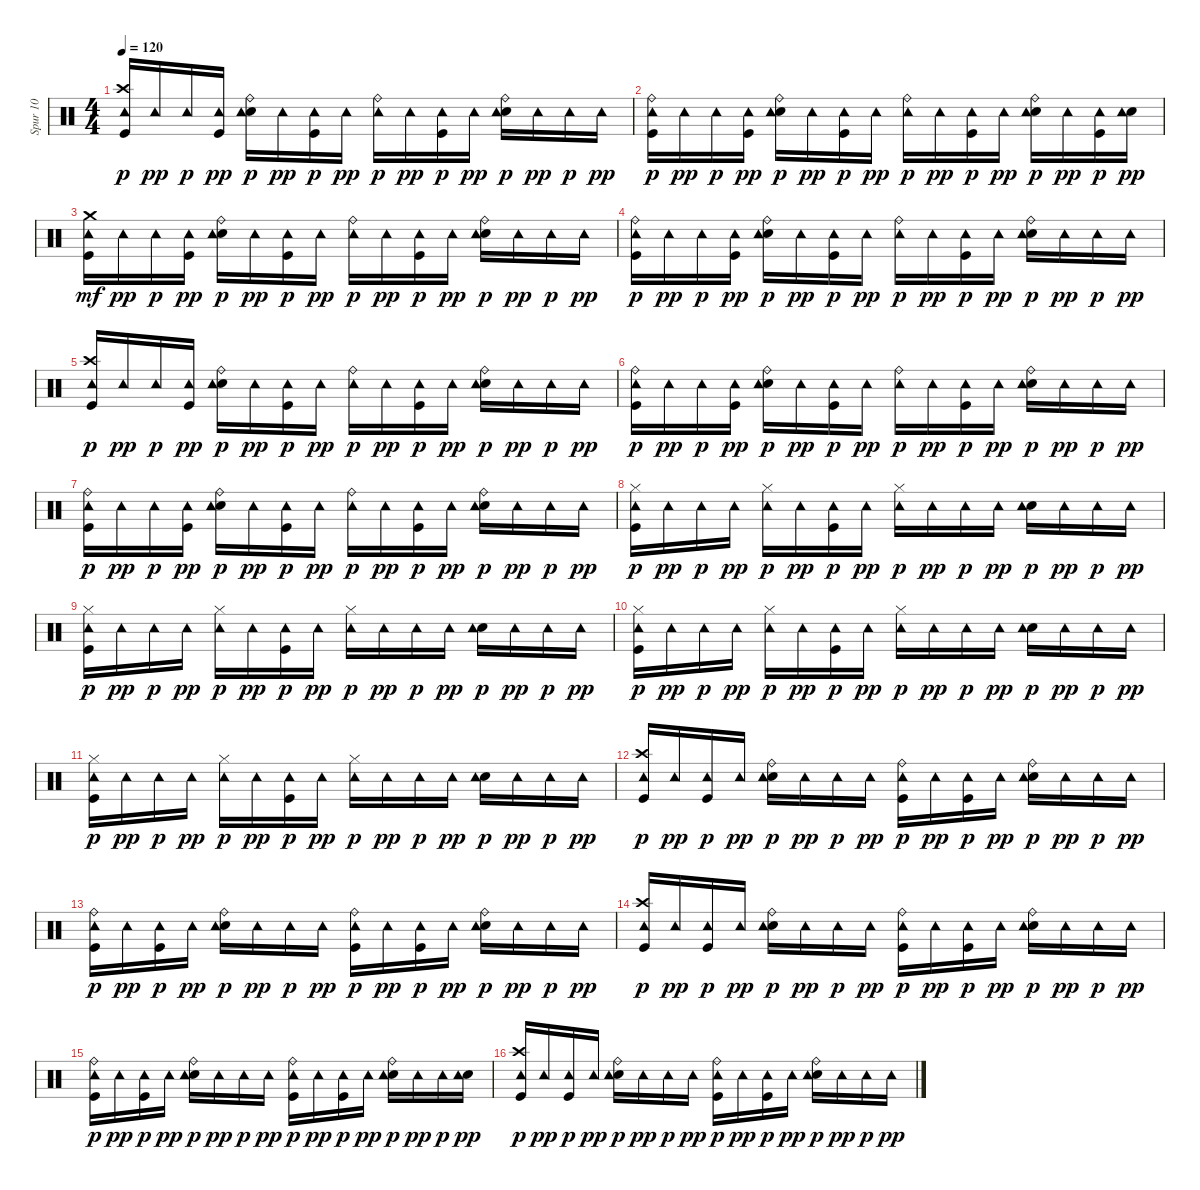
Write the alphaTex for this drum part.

\track ("Spur 10" "Spur 10") {instrument percussion}
\staff {score}
\articulation defaults
\ts (4 4)
\tempo 120
\clef neutral
\ks c
("Kick (hit)" "Crash high (hit)" "Tambourine (hit)").16{dy p} "Tambourine (hit)".16{dy pp} "Tambourine (hit)".16{dy p} ("Kick (hit)" "Tambourine (hit)").16{dy pp} ("Electric Snare (hit)" "Ride (bell)" "Tambourine (hit)").16{dy p} "Tambourine (hit)".16{dy pp} ("Kick (hit)" "Tambourine (hit)").16{dy p} "Tambourine (hit)".16{dy pp} ("Ride (bell)" "Tambourine (hit)").16{dy p} "Tambourine (hit)".16{dy pp} ("Kick (hit)" "Tambourine (hit)").16{dy p} "Tambourine (hit)".16{dy pp} ("Electric Snare (hit)" "Ride (bell)" "Tambourine (hit)").16{dy p} "Tambourine (hit)".16{dy pp} "Tambourine (hit)".16{dy p} "Tambourine (hit)".16{dy pp} |
("Kick (hit)" "Ride (bell)" "Tambourine (hit)").16{dy p} "Tambourine (hit)".16{dy pp} "Tambourine (hit)".16{dy p} ("Kick (hit)" "Tambourine (hit)").16{dy pp} ("Electric Snare (hit)" "Ride (bell)" "Tambourine (hit)").16{dy p} "Tambourine (hit)".16{dy pp} ("Kick (hit)" "Tambourine (hit)").16{dy p} "Tambourine (hit)".16{dy pp} ("Ride (bell)" "Tambourine (hit)").16{dy p} "Tambourine (hit)".16{dy pp} ("Kick (hit)" "Tambourine (hit)").16{dy p} "Tambourine (hit)".16{dy pp} ("Electric Snare (hit)" "Ride (bell)" "Tambourine (hit)").16{dy p} "Tambourine (hit)".16{dy pp} ("Kick (hit)" "Tambourine (hit)").16{dy p} ("Electric Snare (hit)" "Tambourine (hit)").16{dy pp} |
("Kick (hit)" "Tambourine (hit)" "Crash medium (hit)").16{dy mf} "Tambourine (hit)".16{dy pp} "Tambourine (hit)".16{dy p} ("Kick (hit)" "Tambourine (hit)").16{dy pp} ("Electric Snare (hit)" "Ride (bell)" "Tambourine (hit)").16{dy p} "Tambourine (hit)".16{dy pp} ("Kick (hit)" "Tambourine (hit)").16{dy p} "Tambourine (hit)".16{dy pp} ("Ride (bell)" "Tambourine (hit)").16{dy p} "Tambourine (hit)".16{dy pp} ("Kick (hit)" "Tambourine (hit)").16{dy p} "Tambourine (hit)".16{dy pp} ("Electric Snare (hit)" "Ride (bell)" "Tambourine (hit)").16{dy p} "Tambourine (hit)".16{dy pp} "Tambourine (hit)".16{dy p} "Tambourine (hit)".16{dy pp} |
("Kick (hit)" "Ride (bell)" "Tambourine (hit)").16{dy p} "Tambourine (hit)".16{dy pp} "Tambourine (hit)".16{dy p} ("Kick (hit)" "Tambourine (hit)").16{dy pp} ("Electric Snare (hit)" "Ride (bell)" "Tambourine (hit)").16{dy p} "Tambourine (hit)".16{dy pp} ("Kick (hit)" "Tambourine (hit)").16{dy p} "Tambourine (hit)".16{dy pp} ("Ride (bell)" "Tambourine (hit)").16{dy p} "Tambourine (hit)".16{dy pp} ("Kick (hit)" "Tambourine (hit)").16{dy p} "Tambourine (hit)".16{dy pp} ("Electric Snare (hit)" "Ride (bell)" "Tambourine (hit)").16{dy p} "Tambourine (hit)".16{dy pp} "Tambourine (hit)".16{dy p} "Tambourine (hit)".16{dy pp} |
("Kick (hit)" "Crash high (hit)" "Tambourine (hit)").16{dy p} "Tambourine (hit)".16{dy pp} "Tambourine (hit)".16{dy p} ("Kick (hit)" "Tambourine (hit)").16{dy pp} ("Electric Snare (hit)" "Ride (bell)" "Tambourine (hit)").16{dy p} "Tambourine (hit)".16{dy pp} ("Kick (hit)" "Tambourine (hit)").16{dy p} "Tambourine (hit)".16{dy pp} ("Ride (bell)" "Tambourine (hit)").16{dy p} "Tambourine (hit)".16{dy pp} ("Kick (hit)" "Tambourine (hit)").16{dy p} "Tambourine (hit)".16{dy pp} ("Electric Snare (hit)" "Ride (bell)" "Tambourine (hit)").16{dy p} "Tambourine (hit)".16{dy pp} "Tambourine (hit)".16{dy p} "Tambourine (hit)".16{dy pp} |
("Kick (hit)" "Ride (bell)" "Tambourine (hit)").16{dy p} "Tambourine (hit)".16{dy pp} "Tambourine (hit)".16{dy p} ("Kick (hit)" "Tambourine (hit)").16{dy pp} ("Electric Snare (hit)" "Ride (bell)" "Tambourine (hit)").16{dy p} "Tambourine (hit)".16{dy pp} ("Kick (hit)" "Tambourine (hit)").16{dy p} "Tambourine (hit)".16{dy pp} ("Ride (bell)" "Tambourine (hit)").16{dy p} "Tambourine (hit)".16{dy pp} ("Kick (hit)" "Tambourine (hit)").16{dy p} "Tambourine (hit)".16{dy pp} ("Electric Snare (hit)" "Ride (bell)" "Tambourine (hit)").16{dy p} "Tambourine (hit)".16{dy pp} "Tambourine (hit)".16{dy p} "Tambourine (hit)".16{dy pp} |
("Kick (hit)" "Ride (bell)" "Tambourine (hit)").16{dy p} "Tambourine (hit)".16{dy pp} "Tambourine (hit)".16{dy p} ("Kick (hit)" "Tambourine (hit)").16{dy pp} ("Electric Snare (hit)" "Ride (bell)" "Tambourine (hit)").16{dy p} "Tambourine (hit)".16{dy pp} ("Kick (hit)" "Tambourine (hit)").16{dy p} "Tambourine (hit)".16{dy pp} ("Ride (bell)" "Tambourine (hit)").16{dy p} "Tambourine (hit)".16{dy pp} ("Kick (hit)" "Tambourine (hit)").16{dy p} "Tambourine (hit)".16{dy pp} ("Electric Snare (hit)" "Ride (bell)" "Tambourine (hit)").16{dy p} "Tambourine (hit)".16{dy pp} "Tambourine (hit)".16{dy p} "Tambourine (hit)".16{dy pp} |
("Kick (hit)" "Hi-Hat (closed)" "Tambourine (hit)").16{dy p} "Tambourine (hit)".16{dy pp} "Tambourine (hit)".16{dy p} "Tambourine (hit)".16{dy pp} ("Hi-Hat (closed)" "Tambourine (hit)").16{dy p} "Tambourine (hit)".16{dy pp} ("Kick (hit)" "Tambourine (hit)").16{dy p} "Tambourine (hit)".16{dy pp} ("Hi-Hat (closed)" "Tambourine (hit)").16{dy p} "Tambourine (hit)".16{dy pp} "Tambourine (hit)".16{dy p} "Tambourine (hit)".16{dy pp} ("Electric Snare (hit)" "Tambourine (hit)").16{dy p} "Tambourine (hit)".16{dy pp} "Tambourine (hit)".16{dy p} "Tambourine (hit)".16{dy pp} |
("Kick (hit)" "Hi-Hat (closed)" "Tambourine (hit)").16{dy p} "Tambourine (hit)".16{dy pp} "Tambourine (hit)".16{dy p} "Tambourine (hit)".16{dy pp} ("Hi-Hat (closed)" "Tambourine (hit)").16{dy p} "Tambourine (hit)".16{dy pp} ("Kick (hit)" "Tambourine (hit)").16{dy p} "Tambourine (hit)".16{dy pp} ("Hi-Hat (closed)" "Tambourine (hit)").16{dy p} "Tambourine (hit)".16{dy pp} "Tambourine (hit)".16{dy p} "Tambourine (hit)".16{dy pp} ("Electric Snare (hit)" "Tambourine (hit)").16{dy p} "Tambourine (hit)".16{dy pp} "Tambourine (hit)".16{dy p} "Tambourine (hit)".16{dy pp} |
("Kick (hit)" "Hi-Hat (closed)" "Tambourine (hit)").16{dy p} "Tambourine (hit)".16{dy pp} "Tambourine (hit)".16{dy p} "Tambourine (hit)".16{dy pp} ("Hi-Hat (closed)" "Tambourine (hit)").16{dy p} "Tambourine (hit)".16{dy pp} ("Kick (hit)" "Tambourine (hit)").16{dy p} "Tambourine (hit)".16{dy pp} ("Hi-Hat (closed)" "Tambourine (hit)").16{dy p} "Tambourine (hit)".16{dy pp} "Tambourine (hit)".16{dy p} "Tambourine (hit)".16{dy pp} ("Electric Snare (hit)" "Tambourine (hit)").16{dy p} "Tambourine (hit)".16{dy pp} "Tambourine (hit)".16{dy p} "Tambourine (hit)".16{dy pp} |
("Kick (hit)" "Hi-Hat (closed)" "Tambourine (hit)").16{dy p} "Tambourine (hit)".16{dy pp} "Tambourine (hit)".16{dy p} "Tambourine (hit)".16{dy pp} ("Hi-Hat (closed)" "Tambourine (hit)").16{dy p} "Tambourine (hit)".16{dy pp} ("Kick (hit)" "Tambourine (hit)").16{dy p} "Tambourine (hit)".16{dy pp} ("Hi-Hat (closed)" "Tambourine (hit)").16{dy p} "Tambourine (hit)".16{dy pp} "Tambourine (hit)".16{dy p} "Tambourine (hit)".16{dy pp} ("Electric Snare (hit)" "Tambourine (hit)").16{dy p} "Tambourine (hit)".16{dy pp} "Tambourine (hit)".16{dy p} "Tambourine (hit)".16{dy pp} |
("Kick (hit)" "Crash high (hit)" "Tambourine (hit)").16{dy p} "Tambourine (hit)".16{dy pp} ("Kick (hit)" "Tambourine (hit)").16{dy p} "Tambourine (hit)".16{dy pp} ("Electric Snare (hit)" "Ride (bell)" "Tambourine (hit)").16{dy p} "Tambourine (hit)".16{dy pp} "Tambourine (hit)".16{dy p} "Tambourine (hit)".16{dy pp} ("Kick (hit)" "Ride (bell)" "Tambourine (hit)").16{dy p} "Tambourine (hit)".16{dy pp} ("Kick (hit)" "Tambourine (hit)").16{dy p} "Tambourine (hit)".16{dy pp} ("Electric Snare (hit)" "Ride (bell)" "Tambourine (hit)").16{dy p} "Tambourine (hit)".16{dy pp} "Tambourine (hit)".16{dy p} "Tambourine (hit)".16{dy pp} |
("Kick (hit)" "Ride (bell)" "Tambourine (hit)").16{dy p} "Tambourine (hit)".16{dy pp} ("Kick (hit)" "Tambourine (hit)").16{dy p} "Tambourine (hit)".16{dy pp} ("Electric Snare (hit)" "Ride (bell)" "Tambourine (hit)").16{dy p} "Tambourine (hit)".16{dy pp} "Tambourine (hit)".16{dy p} "Tambourine (hit)".16{dy pp} ("Kick (hit)" "Ride (bell)" "Tambourine (hit)").16{dy p} "Tambourine (hit)".16{dy pp} ("Kick (hit)" "Tambourine (hit)").16{dy p} "Tambourine (hit)".16{dy pp} ("Electric Snare (hit)" "Ride (bell)" "Tambourine (hit)").16{dy p} "Tambourine (hit)".16{dy pp} "Tambourine (hit)".16{dy p} "Tambourine (hit)".16{dy pp} |
("Kick (hit)" "Crash high (hit)" "Tambourine (hit)").16{dy p} "Tambourine (hit)".16{dy pp} ("Kick (hit)" "Tambourine (hit)").16{dy p} "Tambourine (hit)".16{dy pp} ("Electric Snare (hit)" "Ride (bell)" "Tambourine (hit)").16{dy p} "Tambourine (hit)".16{dy pp} "Tambourine (hit)".16{dy p} "Tambourine (hit)".16{dy pp} ("Kick (hit)" "Ride (bell)" "Tambourine (hit)").16{dy p} "Tambourine (hit)".16{dy pp} ("Kick (hit)" "Tambourine (hit)").16{dy p} "Tambourine (hit)".16{dy pp} ("Electric Snare (hit)" "Ride (bell)" "Tambourine (hit)").16{dy p} "Tambourine (hit)".16{dy pp} "Tambourine (hit)".16{dy p} "Tambourine (hit)".16{dy pp} |
("Kick (hit)" "Ride (bell)" "Tambourine (hit)").16{dy p} "Tambourine (hit)".16{dy pp} ("Kick (hit)" "Tambourine (hit)").16{dy p} "Tambourine (hit)".16{dy pp} ("Electric Snare (hit)" "Ride (bell)" "Tambourine (hit)").16{dy p} "Tambourine (hit)".16{dy pp} "Tambourine (hit)".16{dy p} "Tambourine (hit)".16{dy pp} ("Kick (hit)" "Ride (bell)" "Tambourine (hit)").16{dy p} "Tambourine (hit)".16{dy pp} ("Kick (hit)" "Tambourine (hit)").16{dy p} "Tambourine (hit)".16{dy pp} ("Electric Snare (hit)" "Ride (bell)" "Tambourine (hit)").16{dy p} "Tambourine (hit)".16{dy pp} "Tambourine (hit)".16{dy p} ("Electric Snare (hit)" "Tambourine (hit)").16{dy pp} |
("Kick (hit)" "Crash high (hit)" "Tambourine (hit)").16{dy p} "Tambourine (hit)".16{dy pp} ("Kick (hit)" "Tambourine (hit)").16{dy p} "Tambourine (hit)".16{dy pp} ("Electric Snare (hit)" "Ride (bell)" "Tambourine (hit)").16{dy p} "Tambourine (hit)".16{dy pp} "Tambourine (hit)".16{dy p} "Tambourine (hit)".16{dy pp} ("Kick (hit)" "Ride (bell)" "Tambourine (hit)").16{dy p} "Tambourine (hit)".16{dy pp} ("Kick (hit)" "Tambourine (hit)").16{dy p} "Tambourine (hit)".16{dy pp} ("Electric Snare (hit)" "Ride (bell)" "Tambourine (hit)").16{dy p} "Tambourine (hit)".16{dy pp} "Tambourine (hit)".16{dy p} "Tambourine (hit)".16{dy pp}
